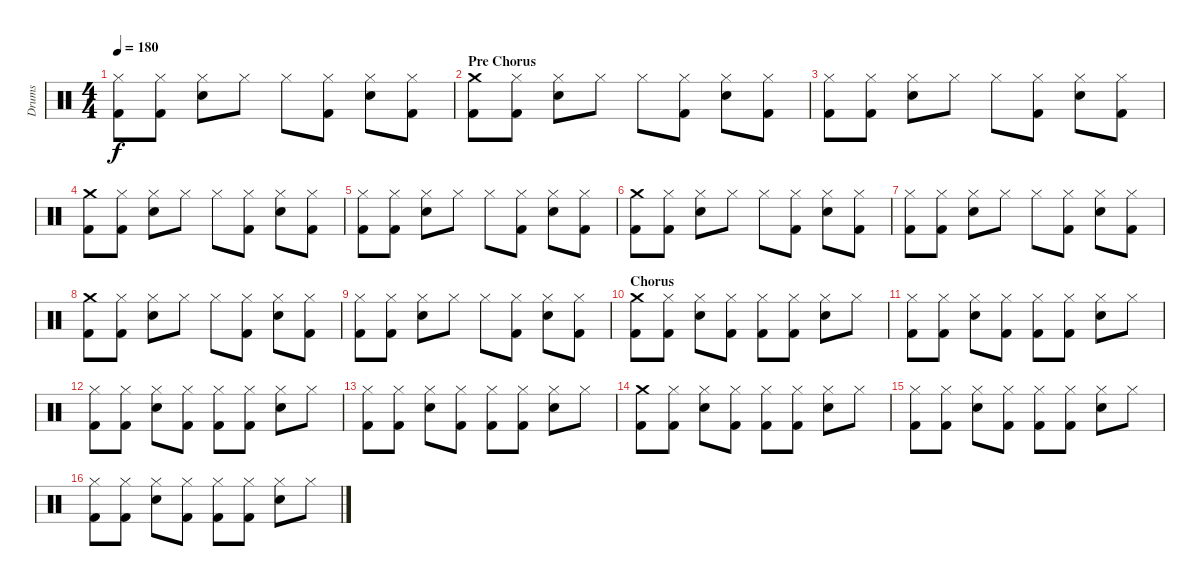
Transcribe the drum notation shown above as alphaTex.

\track ("Drums" "Drums") {instrument percussion}
\staff {score}
\articulation defaults
\ts (4 4)
\tempo 180
\clef neutral
\ks c
("Hi-Hat (closed)" "Kick (hit) 2").8{dy f} ("Hi-Hat (closed)" "Kick (hit) 2").8 ("Hi-Hat (closed)" "Electric Snare (hit)").8 "Hi-Hat (closed)".8 "Hi-Hat (closed)".8 ("Hi-Hat (closed)" "Kick (hit) 2").8 ("Hi-Hat (closed)" "Electric Snare (hit)").8 ("Hi-Hat (closed)" "Kick (hit) 2").8 |
\section ("" "Pre Chorus")
("Crash medium (hit)" "Kick (hit) 2").8 ("Hi-Hat (closed)" "Kick (hit) 2").8 ("Hi-Hat (closed)" "Electric Snare (hit)").8 "Hi-Hat (closed)".8 "Hi-Hat (closed)".8 ("Hi-Hat (closed)" "Kick (hit) 2").8 ("Hi-Hat (closed)" "Electric Snare (hit)").8 ("Hi-Hat (closed)" "Kick (hit) 2").8 |
("Hi-Hat (closed)" "Kick (hit) 2").8 ("Hi-Hat (closed)" "Kick (hit) 2").8 ("Hi-Hat (closed)" "Electric Snare (hit)").8 "Hi-Hat (closed)".8 "Hi-Hat (closed)".8 ("Hi-Hat (closed)" "Kick (hit) 2").8 ("Hi-Hat (closed)" "Electric Snare (hit)").8 ("Hi-Hat (closed)" "Kick (hit) 2").8 |
("Crash medium (hit)" "Kick (hit) 2").8 ("Hi-Hat (closed)" "Kick (hit) 2").8 ("Hi-Hat (closed)" "Electric Snare (hit)").8 "Hi-Hat (closed)".8 "Hi-Hat (closed)".8 ("Hi-Hat (closed)" "Kick (hit) 2").8 ("Hi-Hat (closed)" "Electric Snare (hit)").8 ("Hi-Hat (closed)" "Kick (hit) 2").8 |
("Hi-Hat (closed)" "Kick (hit) 2").8 ("Hi-Hat (closed)" "Kick (hit) 2").8 ("Hi-Hat (closed)" "Electric Snare (hit)").8 "Hi-Hat (closed)".8 "Hi-Hat (closed)".8 ("Hi-Hat (closed)" "Kick (hit) 2").8 ("Hi-Hat (closed)" "Electric Snare (hit)").8 ("Hi-Hat (closed)" "Kick (hit) 2").8 |
("Crash medium (hit)" "Kick (hit) 2").8 ("Hi-Hat (closed)" "Kick (hit) 2").8 ("Hi-Hat (closed)" "Electric Snare (hit)").8 "Hi-Hat (closed)".8 "Hi-Hat (closed)".8 ("Hi-Hat (closed)" "Kick (hit) 2").8 ("Hi-Hat (closed)" "Electric Snare (hit)").8 ("Hi-Hat (closed)" "Kick (hit) 2").8 |
("Hi-Hat (closed)" "Kick (hit) 2").8 ("Hi-Hat (closed)" "Kick (hit) 2").8 ("Hi-Hat (closed)" "Electric Snare (hit)").8 "Hi-Hat (closed)".8 "Hi-Hat (closed)".8 ("Hi-Hat (closed)" "Kick (hit) 2").8 ("Hi-Hat (closed)" "Electric Snare (hit)").8 ("Hi-Hat (closed)" "Kick (hit) 2").8 |
("Crash medium (hit)" "Kick (hit) 2").8 ("Hi-Hat (closed)" "Kick (hit) 2").8 ("Hi-Hat (closed)" "Electric Snare (hit)").8 "Hi-Hat (closed)".8 "Hi-Hat (closed)".8 ("Hi-Hat (closed)" "Kick (hit) 2").8 ("Hi-Hat (closed)" "Electric Snare (hit)").8 ("Hi-Hat (closed)" "Kick (hit) 2").8 |
("Hi-Hat (closed)" "Kick (hit) 2").8 ("Hi-Hat (closed)" "Kick (hit) 2").8 ("Hi-Hat (closed)" "Electric Snare (hit)").8 "Hi-Hat (closed)".8 "Hi-Hat (closed)".8 ("Hi-Hat (closed)" "Kick (hit) 2").8 ("Hi-Hat (closed)" "Electric Snare (hit)").8 ("Hi-Hat (closed)" "Kick (hit) 2").8 |
\section ("" "Chorus")
("Crash medium (hit)" "Kick (hit) 2").8 ("Hi-Hat (closed)" "Kick (hit) 2").8 ("Hi-Hat (closed)" "Electric Snare (hit)").8 ("Hi-Hat (closed)" "Kick (hit) 2").8 ("Hi-Hat (closed)" "Kick (hit) 2").8 ("Hi-Hat (closed)" "Kick (hit) 2").8 ("Hi-Hat (closed)" "Electric Snare (hit)").8 "Hi-Hat (closed)".8 |
("Hi-Hat (closed)" "Kick (hit) 2").8 ("Hi-Hat (closed)" "Kick (hit) 2").8 ("Hi-Hat (closed)" "Electric Snare (hit)").8 ("Hi-Hat (closed)" "Kick (hit) 2").8 ("Hi-Hat (closed)" "Kick (hit) 2").8 ("Hi-Hat (closed)" "Kick (hit) 2").8 ("Hi-Hat (closed)" "Electric Snare (hit)").8 "Hi-Hat (closed)".8 |
("Hi-Hat (closed)" "Kick (hit) 2").8 ("Hi-Hat (closed)" "Kick (hit) 2").8 ("Hi-Hat (closed)" "Electric Snare (hit)").8 ("Hi-Hat (closed)" "Kick (hit) 2").8 ("Hi-Hat (closed)" "Kick (hit) 2").8 ("Hi-Hat (closed)" "Kick (hit) 2").8 ("Hi-Hat (closed)" "Electric Snare (hit)").8 "Hi-Hat (closed)".8 |
("Hi-Hat (closed)" "Kick (hit) 2").8 ("Hi-Hat (closed)" "Kick (hit) 2").8 ("Hi-Hat (closed)" "Electric Snare (hit)").8 ("Hi-Hat (closed)" "Kick (hit) 2").8 ("Hi-Hat (closed)" "Kick (hit) 2").8 ("Hi-Hat (closed)" "Kick (hit) 2").8 ("Hi-Hat (closed)" "Electric Snare (hit)").8 "Hi-Hat (closed)".8 |
("Crash medium (hit)" "Kick (hit) 2").8 ("Hi-Hat (closed)" "Kick (hit) 2").8 ("Hi-Hat (closed)" "Electric Snare (hit)").8 ("Hi-Hat (closed)" "Kick (hit) 2").8 ("Hi-Hat (closed)" "Kick (hit) 2").8 ("Hi-Hat (closed)" "Kick (hit) 2").8 ("Hi-Hat (closed)" "Electric Snare (hit)").8 "Hi-Hat (closed)".8 |
("Hi-Hat (closed)" "Kick (hit) 2").8 ("Hi-Hat (closed)" "Kick (hit) 2").8 ("Hi-Hat (closed)" "Electric Snare (hit)").8 ("Hi-Hat (closed)" "Kick (hit) 2").8 ("Hi-Hat (closed)" "Kick (hit) 2").8 ("Hi-Hat (closed)" "Kick (hit) 2").8 ("Hi-Hat (closed)" "Electric Snare (hit)").8 "Hi-Hat (closed)".8 |
("Hi-Hat (closed)" "Kick (hit) 2").8 ("Hi-Hat (closed)" "Kick (hit) 2").8 ("Hi-Hat (closed)" "Electric Snare (hit)").8 ("Hi-Hat (closed)" "Kick (hit) 2").8 ("Hi-Hat (closed)" "Kick (hit) 2").8 ("Hi-Hat (closed)" "Kick (hit) 2").8 ("Hi-Hat (closed)" "Electric Snare (hit)").8 "Hi-Hat (closed)".8
